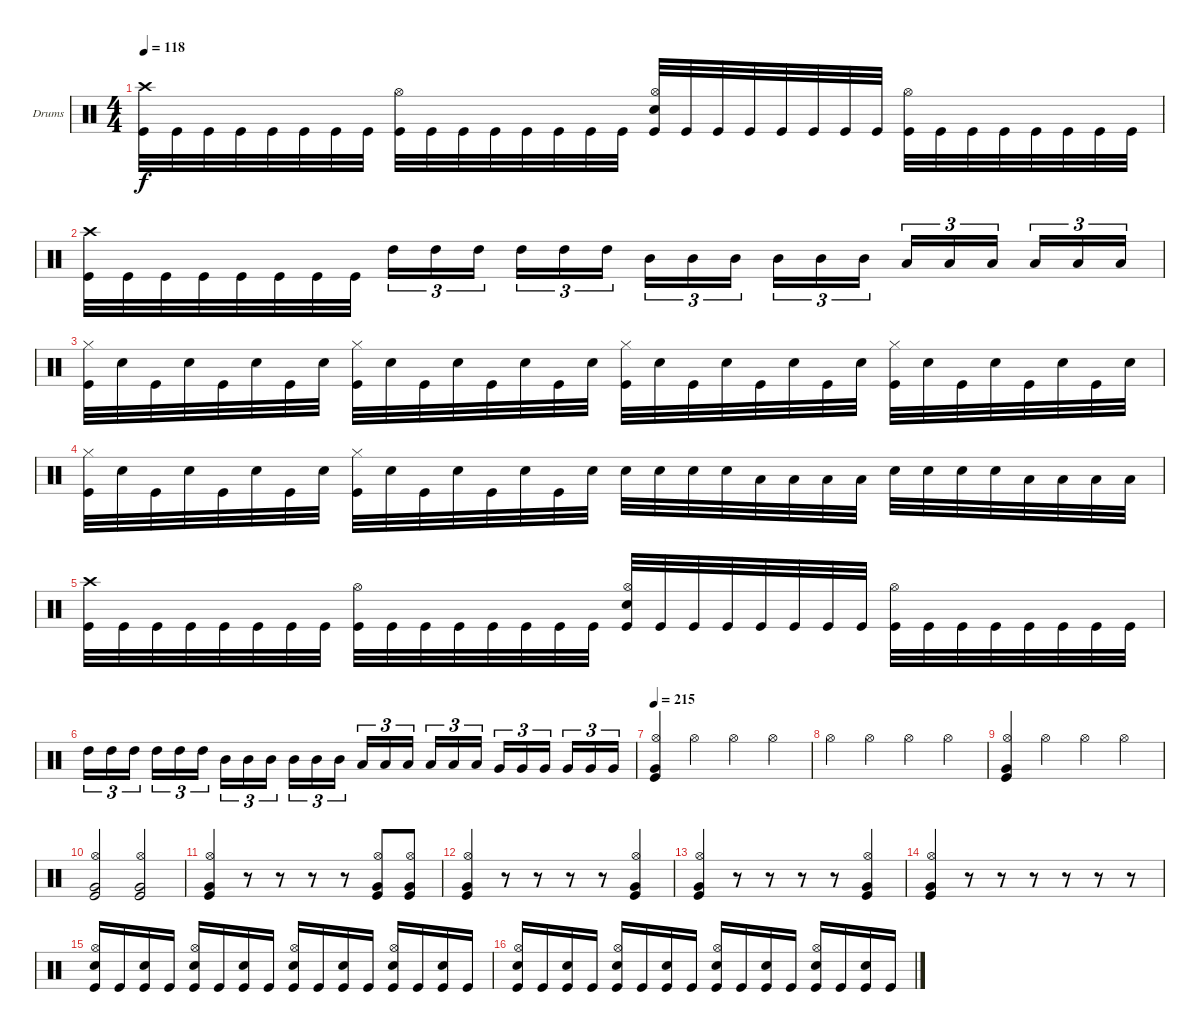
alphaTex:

\defaultSystemsLayout 4
\bracketExtendMode groupsimilarinstruments
\firstSystemTrackNameOrientation horizontal
\otherSystemsTrackNameOrientation horizontal
\track ("Trey Williams" "Drums") {instrument percussion}
\staff {score}
\articulation defaults
\ts (4 4)
\tempo 118
\clef neutral
\ks c
("Kick (hit)" "Crash high (hit)").32{dy f} "Kick (hit)".32 "Kick (hit)".32 "Kick (hit)".32 "Kick (hit)".32 "Kick (hit)".32 "Kick (hit)".32 "Kick (hit)".32 ("Kick (hit)" "Hi-Hat (open)").32 "Kick (hit)".32 "Kick (hit)".32 "Kick (hit)".32 "Kick (hit)".32 "Kick (hit)".32 "Kick (hit)".32 "Kick (hit)".32 ("Kick (hit)" "Hi-Hat (open)" "Snare (hit) 2").32 "Kick (hit)".32 "Kick (hit)".32 "Kick (hit)".32 "Kick (hit)".32 "Kick (hit)".32 "Kick (hit)".32 "Kick (hit)".32 ("Kick (hit)" "Hi-Hat (open)").32 "Kick (hit)".32 "Kick (hit)".32 "Kick (hit)".32 "Kick (hit)".32 "Kick (hit)".32 "Kick (hit)".32 "Kick (hit)".32 |
("Kick (hit)" "Crash high (hit)").32 "Kick (hit)".32 "Kick (hit)".32 "Kick (hit)".32 "Kick (hit)".32 "Kick (hit)".32 "Kick (hit)".32 "Kick (hit)".32 "High Tom (hit)".16{tu (3 2)} "High Tom (hit)".16{tu (3 2)} "High Tom (hit)".16{tu (3 2)} "High Tom (hit)".16{tu (3 2)} "High Tom (hit)".16{tu (3 2)} "High Tom (hit)".16{tu (3 2)} "Mid Tom (hit)".16{tu (3 2)} "Mid Tom (hit)".16{tu (3 2)} "Mid Tom (hit)".16{tu (3 2)} "Mid Tom (hit)".16{tu (3 2)} "Mid Tom (hit)".16{tu (3 2)} "Mid Tom (hit)".16{tu (3 2)} "Low Tom (hit)".16{tu (3 2)} "Low Tom (hit)".16{tu (3 2)} "Low Tom (hit)".16{tu (3 2)} "Low Tom (hit)".16{tu (3 2)} "Low Tom (hit)".16{tu (3 2)} "Low Tom (hit)".16{tu (3 2)} |
("Kick (hit)" "Hi-Hat (closed)").32 "Snare (hit) 2".32 "Kick (hit)".32 "Snare (hit) 2".32 "Kick (hit)".32 "Snare (hit) 2".32 "Kick (hit)".32 "Snare (hit) 2".32 ("Kick (hit)" "Hi-Hat (closed)").32 "Snare (hit) 2".32 "Kick (hit)".32 "Snare (hit) 2".32 "Kick (hit)".32 "Snare (hit) 2".32 "Kick (hit)".32 "Snare (hit) 2".32 ("Kick (hit)" "Hi-Hat (closed)").32 "Snare (hit) 2".32 "Kick (hit)".32 "Snare (hit) 2".32 "Kick (hit)".32 "Snare (hit) 2".32 "Kick (hit)".32 "Snare (hit) 2".32 ("Kick (hit)" "Hi-Hat (closed)").32 "Snare (hit) 2".32 "Kick (hit)".32 "Snare (hit) 2".32 "Kick (hit)".32 "Snare (hit) 2".32 "Kick (hit)".32 "Snare (hit) 2".32 |
("Kick (hit)" "Hi-Hat (closed)").32 "Snare (hit) 2".32 "Kick (hit)".32 "Snare (hit) 2".32 "Kick (hit)".32 "Snare (hit) 2".32 "Kick (hit)".32 "Snare (hit) 2".32 ("Kick (hit)" "Hi-Hat (closed)").32 "Snare (hit) 2".32 "Kick (hit)".32 "Snare (hit) 2".32 "Kick (hit)".32 "Snare (hit) 2".32 "Kick (hit)".32 "Snare (hit) 2".32 "Snare (hit) 2".32 "Snare (hit) 2".32 "Snare (hit) 2".32 "Snare (hit) 2".32 "Low Tom (hit)".32 "Low Tom (hit)".32 "Low Tom (hit)".32 "Low Tom (hit)".32 "Snare (hit) 2".32 "Snare (hit) 2".32 "Snare (hit) 2".32 "Snare (hit) 2".32 "Low Tom (hit)".32 "Low Tom (hit)".32 "Low Tom (hit)".32 "Low Tom (hit)".32 |
("Kick (hit)" "Crash high (hit)").32 "Kick (hit)".32 "Kick (hit)".32 "Kick (hit)".32 "Kick (hit)".32 "Kick (hit)".32 "Kick (hit)".32 "Kick (hit)".32 ("Kick (hit)" "Hi-Hat (open)").32 "Kick (hit)".32 "Kick (hit)".32 "Kick (hit)".32 "Kick (hit)".32 "Kick (hit)".32 "Kick (hit)".32 "Kick (hit)".32 ("Kick (hit)" "Hi-Hat (open)" "Snare (hit) 2").32 "Kick (hit)".32 "Kick (hit)".32 "Kick (hit)".32 "Kick (hit)".32 "Kick (hit)".32 "Kick (hit)".32 "Kick (hit)".32 ("Kick (hit)" "Hi-Hat (open)").32 "Kick (hit)".32 "Kick (hit)".32 "Kick (hit)".32 "Kick (hit)".32 "Kick (hit)".32 "Kick (hit)".32 "Kick (hit)".32 |
"High Tom (hit)".16{tu (3 2)} "High Tom (hit)".16{tu (3 2)} "High Tom (hit)".16{tu (3 2)} "High Tom (hit)".16{tu (3 2)} "High Tom (hit)".16{tu (3 2)} "High Tom (hit)".16{tu (3 2)} "Mid Tom (hit)".16{tu (3 2)} "Mid Tom (hit)".16{tu (3 2)} "Mid Tom (hit)".16{tu (3 2)} "Mid Tom (hit)".16{tu (3 2)} "Mid Tom (hit)".16{tu (3 2)} "Mid Tom (hit)".16{tu (3 2)} "Low Tom (hit)".16{tu (3 2)} "Low Tom (hit)".16{tu (3 2)} "Low Tom (hit)".16{tu (3 2)} "Low Tom (hit)".16{tu (3 2)} "Low Tom (hit)".16{tu (3 2)} "Low Tom (hit)".16{tu (3 2)} "Very Low Tom (hit)".16{tu (3 2)} "Very Low Tom (hit)".16{tu (3 2)} "Very Low Tom (hit)".16{tu (3 2)} "Very Low Tom (hit)".16{tu (3 2)} "Very Low Tom (hit)".16{tu (3 2)} "Very Low Tom (hit)".16{tu (3 2)} |
\tempo 215
("Kick (hit)" "Hi-Hat (open)" "Very Low Tom (hit)").4 "Hi-Hat (open)".4 "Hi-Hat (open)".4 "Hi-Hat (open)".4 |
"Hi-Hat (open)".4 "Hi-Hat (open)".4 "Hi-Hat (open)".4 "Hi-Hat (open)".4 |
("Kick (hit)" "Hi-Hat (open)" "Very Low Tom (hit)").4 "Hi-Hat (open)".4 "Hi-Hat (open)".4 "Hi-Hat (open)".4 |
("Kick (hit)" "Hi-Hat (open)" "Very Low Tom (hit)").2 ("Kick (hit)" "Hi-Hat (open)" "Very Low Tom (hit)").2 |
("Kick (hit)" "Hi-Hat (open)" "Very Low Tom (hit)").4 r.8 r.8 r.8 r.8 ("Kick (hit)" "Hi-Hat (open)" "Very Low Tom (hit)").8 ("Kick (hit)" "Hi-Hat (open)" "Very Low Tom (hit)").8 |
("Kick (hit)" "Hi-Hat (open)" "Very Low Tom (hit)").4 r.8 r.8 r.8 r.8 ("Kick (hit)" "Hi-Hat (open)" "Very Low Tom (hit)").4 |
("Kick (hit)" "Hi-Hat (open)" "Very Low Tom (hit)").4 r.8 r.8 r.8 r.8 ("Kick (hit)" "Hi-Hat (open)" "Very Low Tom (hit)").4 |
("Kick (hit)" "Hi-Hat (open)" "Very Low Tom (hit)").4 r.8 r.8 r.8 r.8 r.8 r.8 |
("Kick (hit)" "Snare (hit) 2" "Hi-Hat (open)").16 "Kick (hit)".16 ("Kick (hit)" "Snare (hit) 2").16 "Kick (hit)".16 ("Kick (hit)" "Snare (hit) 2" "Hi-Hat (open)").16 "Kick (hit)".16 ("Kick (hit)" "Snare (hit) 2").16 "Kick (hit)".16 ("Kick (hit)" "Snare (hit) 2" "Hi-Hat (open)").16 "Kick (hit)".16 ("Kick (hit)" "Snare (hit) 2").16 "Kick (hit)".16 ("Kick (hit)" "Snare (hit) 2" "Hi-Hat (open)").16 "Kick (hit)".16 ("Kick (hit)" "Snare (hit) 2").16 "Kick (hit)".16 |
("Kick (hit)" "Snare (hit) 2" "Hi-Hat (open)").16 "Kick (hit)".16 ("Kick (hit)" "Snare (hit) 2").16 "Kick (hit)".16 ("Kick (hit)" "Snare (hit) 2" "Hi-Hat (open)").16 "Kick (hit)".16 ("Kick (hit)" "Snare (hit) 2").16 "Kick (hit)".16 ("Kick (hit)" "Snare (hit) 2" "Hi-Hat (open)").16 "Kick (hit)".16 ("Kick (hit)" "Snare (hit) 2").16 "Kick (hit)".16 ("Kick (hit)" "Snare (hit) 2" "Hi-Hat (open)").16 "Kick (hit)".16 ("Kick (hit)" "Snare (hit) 2").16 "Kick (hit)".16
